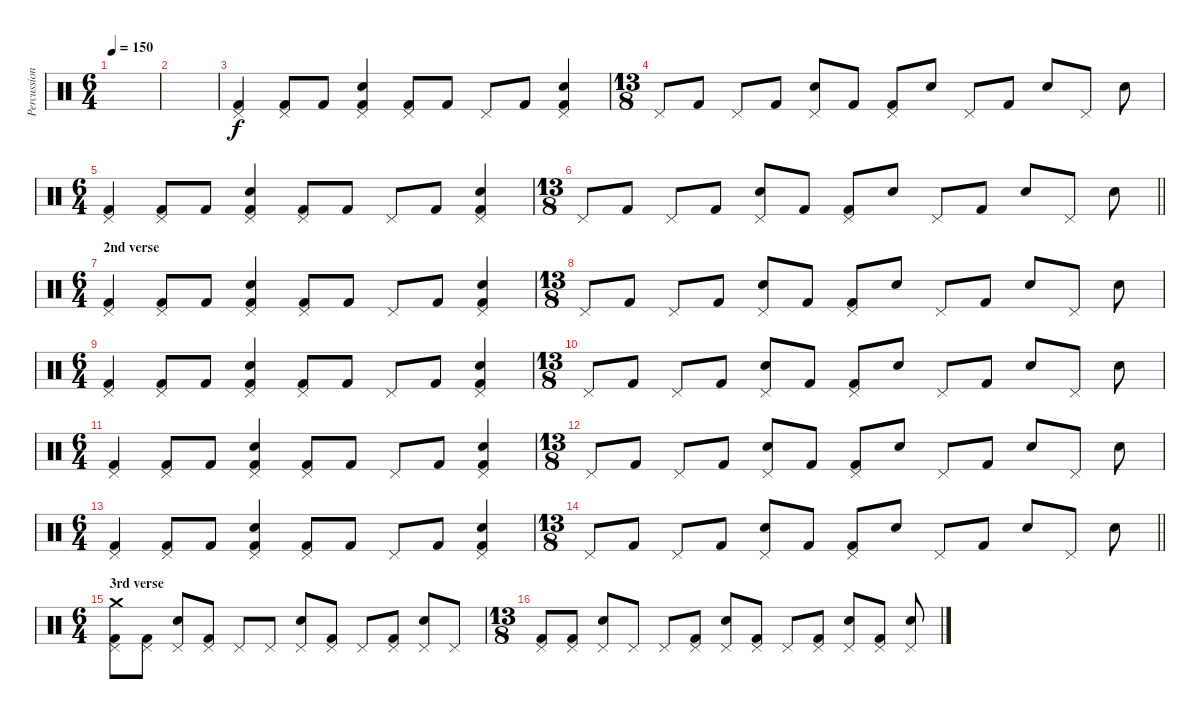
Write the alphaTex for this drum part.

\track ("Percussion" "Percussion") {instrument percussion}
\staff {score}
\articulation defaults
\ts (6 4)
\tempo 150
\clef neutral
\ks c
|
|
("Pedal Hi-Hat (hit)" "Kick (hit) 2").4 ("Pedal Hi-Hat (hit)" "Kick (hit) 2").8 "Kick (hit) 2".8 ("Pedal Hi-Hat (hit)" "Electric Snare (hit)" "Kick (hit) 2").4 ("Pedal Hi-Hat (hit)" "Kick (hit) 2").8 "Kick (hit) 2".8 "Pedal Hi-Hat (hit)".8 "Kick (hit) 2".8 ("Pedal Hi-Hat (hit)" "Electric Snare (hit)" "Kick (hit) 2").4 |
\ts (13 8)
"Pedal Hi-Hat (hit)".8 "Kick (hit) 2".8 "Pedal Hi-Hat (hit)".8 "Kick (hit) 2".8 ("Pedal Hi-Hat (hit)" "Electric Snare (hit)").8 "Kick (hit) 2".8 ("Pedal Hi-Hat (hit)" "Kick (hit) 2").8 "Electric Snare (hit)".8 "Pedal Hi-Hat (hit)".8 "Kick (hit) 2".8 "Electric Snare (hit)".8 "Pedal Hi-Hat (hit)".8 "Electric Snare (hit)".8 |
\ts (6 4)
("Pedal Hi-Hat (hit)" "Kick (hit) 2").4 ("Pedal Hi-Hat (hit)" "Kick (hit) 2").8 "Kick (hit) 2".8 ("Pedal Hi-Hat (hit)" "Electric Snare (hit)" "Kick (hit) 2").4 ("Pedal Hi-Hat (hit)" "Kick (hit) 2").8 "Kick (hit) 2".8 "Pedal Hi-Hat (hit)".8 "Kick (hit) 2".8 ("Pedal Hi-Hat (hit)" "Electric Snare (hit)" "Kick (hit) 2").4 |
\ts (13 8)
\barLineRight lightlight "Pedal Hi-Hat (hit)".8 "Kick (hit) 2".8 "Pedal Hi-Hat (hit)".8 "Kick (hit) 2".8
("Pedal Hi-Hat (hit)" "Electric Snare (hit)").8 "Kick (hit) 2".8 ("Pedal Hi-Hat (hit)" "Kick (hit) 2").8 "Electric Snare (hit)".8 "Pedal Hi-Hat (hit)".8 "Kick (hit) 2".8 "Electric Snare (hit)".8 "Pedal Hi-Hat (hit)".8 "Electric Snare (hit)".8 |
\ts (6 4)
\section ("" "2nd verse")
("Pedal Hi-Hat (hit)" "Kick (hit) 2").4 ("Pedal Hi-Hat (hit)" "Kick (hit) 2").8 "Kick (hit) 2".8 ("Pedal Hi-Hat (hit)" "Electric Snare (hit)" "Kick (hit) 2").4 ("Pedal Hi-Hat (hit)" "Kick (hit) 2").8 "Kick (hit) 2".8 "Pedal Hi-Hat (hit)".8 "Kick (hit) 2".8 ("Pedal Hi-Hat (hit)" "Electric Snare (hit)" "Kick (hit) 2").4 |
\ts (13 8)
"Pedal Hi-Hat (hit)".8 "Kick (hit) 2".8 "Pedal Hi-Hat (hit)".8 "Kick (hit) 2".8 ("Pedal Hi-Hat (hit)" "Electric Snare (hit)").8 "Kick (hit) 2".8 ("Pedal Hi-Hat (hit)" "Kick (hit) 2").8 "Electric Snare (hit)".8 "Pedal Hi-Hat (hit)".8 "Kick (hit) 2".8 "Electric Snare (hit)".8 "Pedal Hi-Hat (hit)".8 "Electric Snare (hit)".8 |
\ts (6 4)
("Pedal Hi-Hat (hit)" "Kick (hit) 2").4 ("Pedal Hi-Hat (hit)" "Kick (hit) 2").8 "Kick (hit) 2".8 ("Pedal Hi-Hat (hit)" "Electric Snare (hit)" "Kick (hit) 2").4 ("Pedal Hi-Hat (hit)" "Kick (hit) 2").8 "Kick (hit) 2".8 "Pedal Hi-Hat (hit)".8 "Kick (hit) 2".8 ("Pedal Hi-Hat (hit)" "Electric Snare (hit)" "Kick (hit) 2").4 |
\ts (13 8)
"Pedal Hi-Hat (hit)".8 "Kick (hit) 2".8 "Pedal Hi-Hat (hit)".8 "Kick (hit) 2".8 ("Pedal Hi-Hat (hit)" "Electric Snare (hit)").8 "Kick (hit) 2".8 ("Pedal Hi-Hat (hit)" "Kick (hit) 2").8 "Electric Snare (hit)".8 "Pedal Hi-Hat (hit)".8 "Kick (hit) 2".8 "Electric Snare (hit)".8 "Pedal Hi-Hat (hit)".8 "Electric Snare (hit)".8 |
\ts (6 4)
("Pedal Hi-Hat (hit)" "Kick (hit) 2").4 ("Pedal Hi-Hat (hit)" "Kick (hit) 2").8 "Kick (hit) 2".8 ("Pedal Hi-Hat (hit)" "Electric Snare (hit)" "Kick (hit) 2").4 ("Pedal Hi-Hat (hit)" "Kick (hit) 2").8 "Kick (hit) 2".8 "Pedal Hi-Hat (hit)".8 "Kick (hit) 2".8 ("Pedal Hi-Hat (hit)" "Electric Snare (hit)" "Kick (hit) 2").4 |
\ts (13 8)
"Pedal Hi-Hat (hit)".8 "Kick (hit) 2".8 "Pedal Hi-Hat (hit)".8 "Kick (hit) 2".8 ("Pedal Hi-Hat (hit)" "Electric Snare (hit)").8 "Kick (hit) 2".8 ("Pedal Hi-Hat (hit)" "Kick (hit) 2").8 "Electric Snare (hit)".8 "Pedal Hi-Hat (hit)".8 "Kick (hit) 2".8 "Electric Snare (hit)".8 "Pedal Hi-Hat (hit)".8 "Electric Snare (hit)".8 |
\ts (6 4)
("Pedal Hi-Hat (hit)" "Kick (hit) 2").4 ("Pedal Hi-Hat (hit)" "Kick (hit) 2").8 "Kick (hit) 2".8 ("Pedal Hi-Hat (hit)" "Electric Snare (hit)" "Kick (hit) 2").4 ("Pedal Hi-Hat (hit)" "Kick (hit) 2").8 "Kick (hit) 2".8 "Pedal Hi-Hat (hit)".8 "Kick (hit) 2".8 ("Pedal Hi-Hat (hit)" "Electric Snare (hit)" "Kick (hit) 2").4 |
\ts (13 8)
\barLineRight lightlight "Pedal Hi-Hat (hit)".8 "Kick (hit) 2".8 "Pedal Hi-Hat (hit)".8 "Kick (hit) 2".8
("Pedal Hi-Hat (hit)" "Electric Snare (hit)").8 "Kick (hit) 2".8 ("Pedal Hi-Hat (hit)" "Kick (hit) 2").8 "Electric Snare (hit)".8 "Pedal Hi-Hat (hit)".8 "Kick (hit) 2".8 "Electric Snare (hit)".8 "Pedal Hi-Hat (hit)".8 "Electric Snare (hit)".8 |
\ts (6 4)
\section ("" "3rd verse")
("Crash medium (hit)" "Pedal Hi-Hat (hit)" "Kick (hit) 2").8 ("Pedal Hi-Hat (hit)" "Kick (hit) 2").8 ("Pedal Hi-Hat (hit)" "Electric Snare (hit)").8 ("Pedal Hi-Hat (hit)" "Kick (hit) 2").8 "Pedal Hi-Hat (hit)".8 "Pedal Hi-Hat (hit)".8 ("Pedal Hi-Hat (hit)" "Electric Snare (hit)").8 ("Pedal Hi-Hat (hit)" "Kick (hit) 2").8 "Pedal Hi-Hat (hit)".8 ("Pedal Hi-Hat (hit)" "Kick (hit) 2").8 ("Pedal Hi-Hat (hit)" "Electric Snare (hit)").8 "Pedal Hi-Hat (hit)".8 |
\ts (13 8)
("Pedal Hi-Hat (hit)" "Kick (hit) 2").8 ("Pedal Hi-Hat (hit)" "Kick (hit) 2").8 ("Pedal Hi-Hat (hit)" "Electric Snare (hit)").8 "Pedal Hi-Hat (hit)".8 "Pedal Hi-Hat (hit)".8 ("Pedal Hi-Hat (hit)" "Kick (hit) 2").8 ("Pedal Hi-Hat (hit)" "Electric Snare (hit)").8 ("Pedal Hi-Hat (hit)" "Kick (hit) 2").8 "Pedal Hi-Hat (hit)".8 ("Pedal Hi-Hat (hit)" "Kick (hit) 2").8 ("Pedal Hi-Hat (hit)" "Electric Snare (hit)").8 ("Pedal Hi-Hat (hit)" "Kick (hit) 2").8 ("Pedal Hi-Hat (hit)" "Electric Snare (hit)").8
